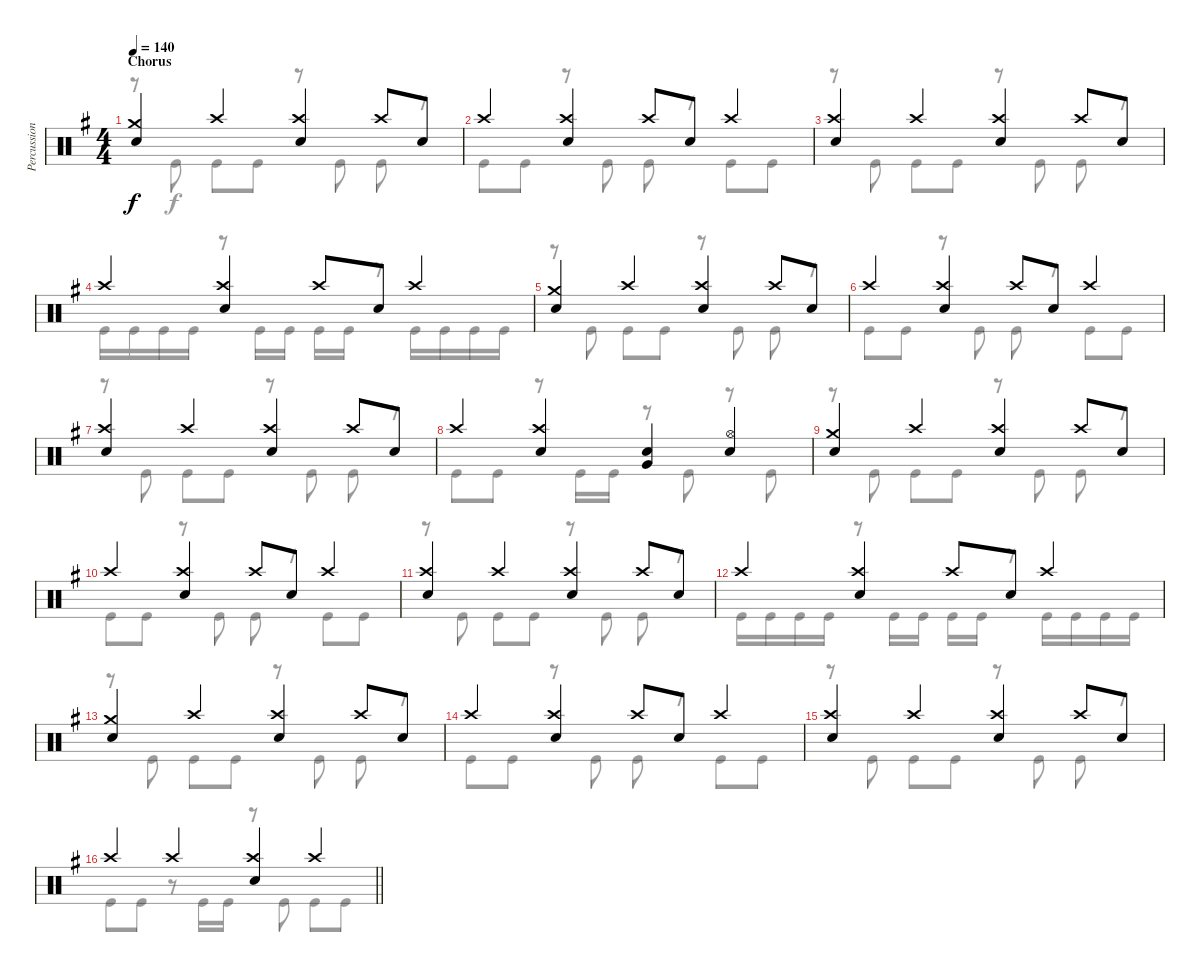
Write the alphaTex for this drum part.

\track ("Percussion" "Percussion") {instrument percussion}
\staff {score}
\articulation defaults
\voice
\ts (4 4)
\section ("" "Chorus")
\tempo 140
\clef neutral
\ks eminor
("Crash medium (hit)" "Electric Snare (hit)").4{dy f} "Crash high (hit)".4 ("Crash high (hit)" "Electric Snare (hit)").4 "Crash high (hit)".8 "Electric Snare (hit)".8 |
"Crash high (hit)".4 ("Crash high (hit)" "Electric Snare (hit)").4 "Crash high (hit)".8 "Electric Snare (hit)".8 "Crash high (hit)".4 |
("Crash high (hit)" "Electric Snare (hit)").4 "Crash high (hit)".4 ("Crash high (hit)" "Electric Snare (hit)").4 "Crash high (hit)".8 "Electric Snare (hit)".8 |
"Crash high (hit)".4 ("Crash high (hit)" "Electric Snare (hit)").4 "Crash high (hit)".8 "Electric Snare (hit)".8 "Crash high (hit)".4 |
("Crash medium (hit)" "Electric Snare (hit)").4 "Crash high (hit)".4 ("Crash high (hit)" "Electric Snare (hit)").4 "Crash high (hit)".8 "Electric Snare (hit)".8 |
"Crash high (hit)".4 ("Crash high (hit)" "Electric Snare (hit)").4 "Crash high (hit)".8 "Electric Snare (hit)".8 "Crash high (hit)".4 |
("Crash high (hit)" "Electric Snare (hit)").4 "Crash high (hit)".4 ("Crash high (hit)" "Electric Snare (hit)").4 "Crash high (hit)".8 "Electric Snare (hit)".8 |
"Crash high (hit)".4 ("Crash high (hit)" "Electric Snare (hit)").4 ("Very Low Tom (hit)" "Electric Snare (hit)").4 ("Hi-Hat (open)" "Electric Snare (hit)").4 |
("Crash medium (hit)" "Electric Snare (hit)").4 "Crash high (hit)".4 ("Crash high (hit)" "Electric Snare (hit)").4 "Crash high (hit)".8 "Electric Snare (hit)".8 |
"Crash high (hit)".4 ("Crash high (hit)" "Electric Snare (hit)").4 "Crash high (hit)".8 "Electric Snare (hit)".8 "Crash high (hit)".4 |
("Crash high (hit)" "Electric Snare (hit)").4 "Crash high (hit)".4 ("Crash high (hit)" "Electric Snare (hit)").4 "Crash high (hit)".8 "Electric Snare (hit)".8 |
"Crash high (hit)".4 ("Crash high (hit)" "Electric Snare (hit)").4 "Crash high (hit)".8 "Electric Snare (hit)".8 "Crash high (hit)".4 |
("Crash medium (hit)" "Electric Snare (hit)").4 "Crash high (hit)".4 ("Crash high (hit)" "Electric Snare (hit)").4 "Crash high (hit)".8 "Electric Snare (hit)".8 |
"Crash high (hit)".4 ("Crash high (hit)" "Electric Snare (hit)").4 "Crash high (hit)".8 "Electric Snare (hit)".8 "Crash high (hit)".4 |
("Crash high (hit)" "Electric Snare (hit)").4 "Crash high (hit)".4 ("Crash high (hit)" "Electric Snare (hit)").4 "Crash high (hit)".8 "Electric Snare (hit)".8 |
\barLineRight lightlight "Crash high (hit)".4 "Crash high (hit)".4
("Crash high (hit)" "Electric Snare (hit)").4 "Crash high (hit)".4
\voice
\clef neutral
\ottava regular
\simile none
\ks eminor
r.8{dy f} "Kick (hit)".8 "Kick (hit)".8 "Kick (hit)".8 r.8 "Kick (hit)".8 "Kick (hit)".8 r.8 |
"Kick (hit)".8 "Kick (hit)".8 r.8 "Kick (hit)".8 "Kick (hit)".8 r.8 "Kick (hit)".8 "Kick (hit)".8 |
r.8 "Kick (hit)".8 "Kick (hit)".8 "Kick (hit)".8 r.8 "Kick (hit)".8 "Kick (hit)".8 r.8 |
"Kick (hit)".16 "Kick (hit)".16 "Kick (hit)".16 "Kick (hit)".16 r.8 "Kick (hit)".16 "Kick (hit)".16 "Kick (hit)".16 "Kick (hit)".16 r.8 "Kick (hit)".16 "Kick (hit)".16 "Kick (hit)".16 "Kick (hit)".16 |
r.8 "Kick (hit)".8 "Kick (hit)".8 "Kick (hit)".8 r.8 "Kick (hit)".8 "Kick (hit)".8 r.8 |
"Kick (hit)".8 "Kick (hit)".8 r.8 "Kick (hit)".8 "Kick (hit)".8 r.8 "Kick (hit)".8 "Kick (hit)".8 |
r.8 "Kick (hit)".8 "Kick (hit)".8 "Kick (hit)".8 r.8 "Kick (hit)".8 "Kick (hit)".8 r.8 |
"Kick (hit)".8 "Kick (hit)".8 r.8 "Kick (hit)".16 "Kick (hit)".16 r.8 "Kick (hit)".8 r.8 "Kick (hit)".8 |
r.8 "Kick (hit)".8 "Kick (hit)".8 "Kick (hit)".8 r.8 "Kick (hit)".8 "Kick (hit)".8 r.8 |
"Kick (hit)".8 "Kick (hit)".8 r.8 "Kick (hit)".8 "Kick (hit)".8 r.8 "Kick (hit)".8 "Kick (hit)".8 |
r.8 "Kick (hit)".8 "Kick (hit)".8 "Kick (hit)".8 r.8 "Kick (hit)".8 "Kick (hit)".8 r.8 |
"Kick (hit)".16 "Kick (hit)".16 "Kick (hit)".16 "Kick (hit)".16 r.8 "Kick (hit)".16 "Kick (hit)".16 "Kick (hit)".16 "Kick (hit)".16 r.8 "Kick (hit)".16 "Kick (hit)".16 "Kick (hit)".16 "Kick (hit)".16 |
r.8 "Kick (hit)".8 "Kick (hit)".8 "Kick (hit)".8 r.8 "Kick (hit)".8 "Kick (hit)".8 r.8 |
"Kick (hit)".8 "Kick (hit)".8 r.8 "Kick (hit)".8 "Kick (hit)".8 r.8 "Kick (hit)".8 "Kick (hit)".8 |
r.8 "Kick (hit)".8 "Kick (hit)".8 "Kick (hit)".8 r.8 "Kick (hit)".8 "Kick (hit)".8 r.8 |
\barLineRight lightlight "Kick (hit)".8 "Kick (hit)".8
r.8 "Kick (hit)".16 "Kick (hit)".16 r.8 "Kick (hit)".8 "Kick (hit)".8 "Kick (hit)".8
